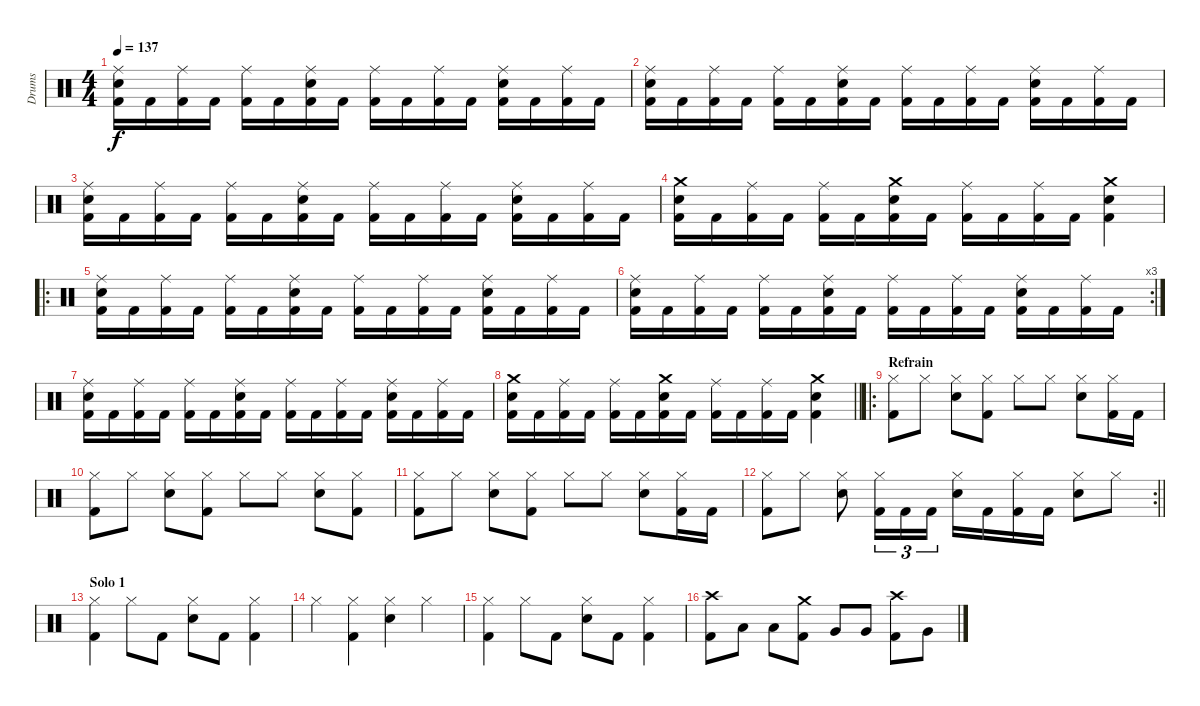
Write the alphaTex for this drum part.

\track ("Drums" "Drums") {instrument percussion}
\staff {score}
\articulation defaults
\ts (4 4)
\tempo 137
\clef neutral
\ks c
("Ride (middle)" "Electric Snare (hit)" "Kick (hit) 2").16{dy f} "Kick (hit) 2".16 ("Ride (middle)" "Kick (hit) 2").16 "Kick (hit) 2".16 ("Ride (middle)" "Kick (hit) 2").16 "Kick (hit) 2".16 ("Ride (middle)" "Electric Snare (hit)" "Kick (hit) 2").16 "Kick (hit) 2".16 ("Ride (middle)" "Kick (hit) 2").16 "Kick (hit) 2".16 ("Ride (middle)" "Kick (hit) 2").16 "Kick (hit) 2".16 ("Ride (middle)" "Electric Snare (hit)" "Kick (hit) 2").16 "Kick (hit) 2".16 ("Ride (middle)" "Kick (hit) 2").16 "Kick (hit) 2".16 |
("Ride (middle)" "Electric Snare (hit)" "Kick (hit) 2").16 "Kick (hit) 2".16 ("Ride (middle)" "Kick (hit) 2").16 "Kick (hit) 2".16 ("Ride (middle)" "Kick (hit) 2").16 "Kick (hit) 2".16 ("Ride (middle)" "Electric Snare (hit)" "Kick (hit) 2").16 "Kick (hit) 2".16 ("Ride (middle)" "Kick (hit) 2").16 "Kick (hit) 2".16 ("Ride (middle)" "Kick (hit) 2").16 "Kick (hit) 2".16 ("Ride (middle)" "Electric Snare (hit)" "Kick (hit) 2").16 "Kick (hit) 2".16 ("Ride (middle)" "Kick (hit) 2").16 "Kick (hit) 2".16 |
("Ride (middle)" "Electric Snare (hit)" "Kick (hit) 2").16 "Kick (hit) 2".16 ("Ride (middle)" "Kick (hit) 2").16 "Kick (hit) 2".16 ("Ride (middle)" "Kick (hit) 2").16 "Kick (hit) 2".16 ("Ride (middle)" "Electric Snare (hit)" "Kick (hit) 2").16 "Kick (hit) 2".16 ("Ride (middle)" "Kick (hit) 2").16 "Kick (hit) 2".16 ("Ride (middle)" "Kick (hit) 2").16 "Kick (hit) 2".16 ("Ride (middle)" "Electric Snare (hit)" "Kick (hit) 2").16 "Kick (hit) 2".16 ("Ride (middle)" "Kick (hit) 2").16 "Kick (hit) 2".16 |
("Crash medium (hit)" "Electric Snare (hit)" "Kick (hit) 2").16 "Kick (hit) 2".16 ("Ride (middle)" "Kick (hit) 2").16 "Kick (hit) 2".16 ("Ride (middle)" "Kick (hit) 2").16 "Kick (hit) 2".16 ("Crash medium (hit)" "Electric Snare (hit)" "Kick (hit) 2").16 "Kick (hit) 2".16 ("Ride (middle)" "Kick (hit) 2").16 "Kick (hit) 2".16 ("Ride (middle)" "Kick (hit) 2").16 "Kick (hit) 2".16 ("Crash medium (hit)" "Electric Snare (hit)" "Kick (hit) 2").4 |
\ro
("Ride (middle)" "Electric Snare (hit)" "Kick (hit) 2").16 "Kick (hit) 2".16 ("Ride (middle)" "Kick (hit) 2").16 "Kick (hit) 2".16 ("Ride (middle)" "Kick (hit) 2").16 "Kick (hit) 2".16 ("Ride (middle)" "Electric Snare (hit)" "Kick (hit) 2").16 "Kick (hit) 2".16 ("Ride (middle)" "Kick (hit) 2").16 "Kick (hit) 2".16 ("Ride (middle)" "Kick (hit) 2").16 "Kick (hit) 2".16 ("Ride (middle)" "Electric Snare (hit)" "Kick (hit) 2").16 "Kick (hit) 2".16 ("Ride (middle)" "Kick (hit) 2").16 "Kick (hit) 2".16 |
\rc 3
("Ride (middle)" "Electric Snare (hit)" "Kick (hit) 2").16 "Kick (hit) 2".16 ("Ride (middle)" "Kick (hit) 2").16 "Kick (hit) 2".16 ("Ride (middle)" "Kick (hit) 2").16 "Kick (hit) 2".16 ("Ride (middle)" "Electric Snare (hit)" "Kick (hit) 2").16 "Kick (hit) 2".16 ("Ride (middle)" "Kick (hit) 2").16 "Kick (hit) 2".16 ("Ride (middle)" "Kick (hit) 2").16 "Kick (hit) 2".16 ("Ride (middle)" "Electric Snare (hit)" "Kick (hit) 2").16 "Kick (hit) 2".16 ("Ride (middle)" "Kick (hit) 2").16 "Kick (hit) 2".16 |
("Ride (middle)" "Electric Snare (hit)" "Kick (hit) 2").16 "Kick (hit) 2".16 ("Ride (middle)" "Kick (hit) 2").16 "Kick (hit) 2".16 ("Ride (middle)" "Kick (hit) 2").16 "Kick (hit) 2".16 ("Ride (middle)" "Electric Snare (hit)" "Kick (hit) 2").16 "Kick (hit) 2".16 ("Ride (middle)" "Kick (hit) 2").16 "Kick (hit) 2".16 ("Ride (middle)" "Kick (hit) 2").16 "Kick (hit) 2".16 ("Ride (middle)" "Electric Snare (hit)" "Kick (hit) 2").16 "Kick (hit) 2".16 ("Ride (middle)" "Kick (hit) 2").16 "Kick (hit) 2".16 |
\barLineRight lightlight
("Crash medium (hit)" "Electric Snare (hit)" "Kick (hit) 2").16 "Kick (hit) 2".16 ("Ride (middle)" "Kick (hit) 2").16 "Kick (hit) 2".16 ("Ride (middle)" "Kick (hit) 2").16 "Kick (hit) 2".16 ("Crash medium (hit)" "Electric Snare (hit)" "Kick (hit) 2").16 "Kick (hit) 2".16 ("Ride (middle)" "Kick (hit) 2").16 "Kick (hit) 2".16 ("Ride (middle)" "Kick (hit) 2").16 "Kick (hit) 2".16 ("Crash medium (hit)" "Electric Snare (hit)" "Kick (hit) 2").4 |
\ro
\section ("" "Refrain")
("Hi-Hat (closed)" "Kick (hit) 2").8 "Hi-Hat (closed)".8 ("Hi-Hat (closed)" "Electric Snare (hit)").8 ("Hi-Hat (closed)" "Kick (hit) 2").8 "Hi-Hat (closed)".8 "Hi-Hat (closed)".8 ("Hi-Hat (closed)" "Electric Snare (hit)").8 ("Hi-Hat (closed)" "Kick (hit) 2").16 "Kick (hit) 2".16 |
("Hi-Hat (closed)" "Kick (hit) 2").8 "Hi-Hat (closed)".8 ("Hi-Hat (closed)" "Electric Snare (hit)").8 ("Hi-Hat (closed)" "Kick (hit) 2").8 "Hi-Hat (closed)".8 "Hi-Hat (closed)".8 ("Hi-Hat (closed)" "Electric Snare (hit)").8 ("Hi-Hat (closed)" "Kick (hit) 2").8 |
("Hi-Hat (closed)" "Kick (hit) 2").8 "Hi-Hat (closed)".8 ("Hi-Hat (closed)" "Electric Snare (hit)").8 ("Hi-Hat (closed)" "Kick (hit) 2").8 "Hi-Hat (closed)".8 "Hi-Hat (closed)".8 ("Hi-Hat (closed)" "Electric Snare (hit)").8 ("Hi-Hat (closed)" "Kick (hit) 2").16 "Kick (hit) 2".16 |
\rc 2
\barLineRight lightlight
("Hi-Hat (closed)" "Kick (hit) 2").8 "Hi-Hat (closed)".8 ("Hi-Hat (closed)" "Electric Snare (hit)").8 ("Hi-Hat (closed)" "Kick (hit) 2").16{tu (3 2)} "Kick (hit) 2".16{tu (3 2)} "Kick (hit) 2".16{tu (3 2)} ("Hi-Hat (closed)" "Electric Snare (hit)").16 "Kick (hit) 2".16 ("Hi-Hat (closed)" "Kick (hit) 2").16 "Kick (hit) 2".16 ("Hi-Hat (closed)" "Electric Snare (hit)").8 "Hi-Hat (closed)".8 |
\section ("" "Solo 1")
("Hi-Hat (closed)" "Kick (hit) 2").4 "Hi-Hat (closed)".8 "Kick (hit) 2".8 ("Hi-Hat (closed)" "Electric Snare (hit)").8 "Kick (hit) 2".8 ("Hi-Hat (closed)" "Kick (hit) 2").4 |
"Hi-Hat (closed)".4 ("Hi-Hat (closed)" "Kick (hit) 2").4 ("Hi-Hat (closed)" "Electric Snare (hit)").4 "Hi-Hat (closed)".4 |
("Hi-Hat (closed)" "Kick (hit) 2").4 "Hi-Hat (closed)".8 "Kick (hit) 2".8 ("Hi-Hat (closed)" "Electric Snare (hit)").8 "Kick (hit) 2".8 ("Hi-Hat (closed)" "Kick (hit) 2").4 |
("Crash high (hit)" "Kick (hit) 2").8 "Low Tom (hit)".8 "Low Tom (hit)".8 ("Crash medium (hit)" "Kick (hit) 2").8 "Very Low Tom (hit)".8 "Very Low Tom (hit)".8 ("Crash high (hit)" "Kick (hit) 2").8 "Very Low Tom (hit)".8
